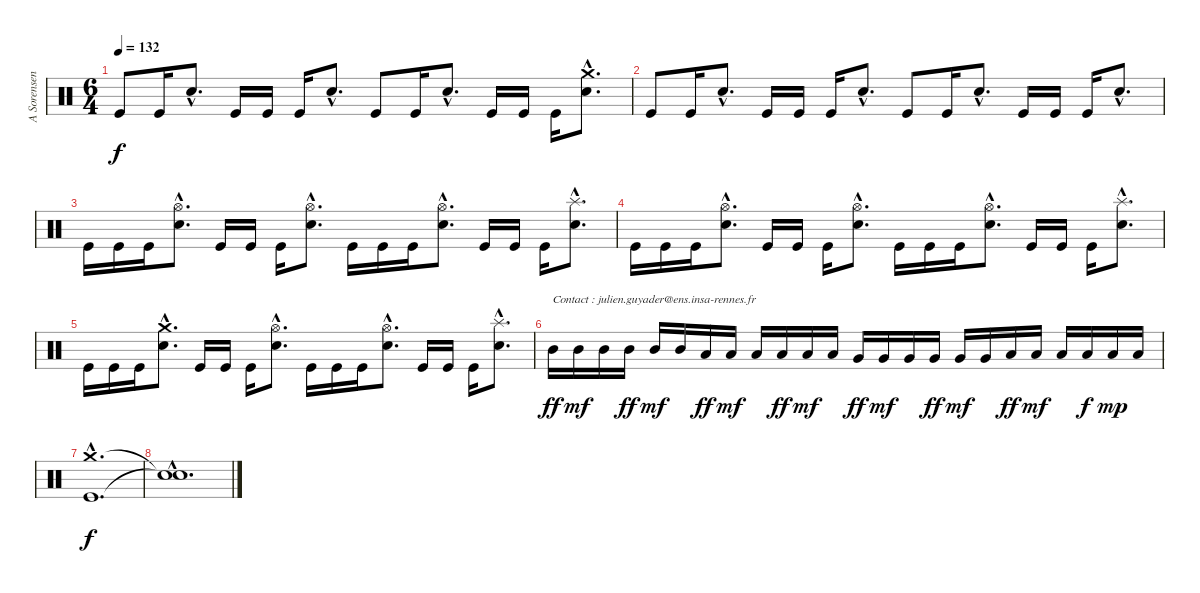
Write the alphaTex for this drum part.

\track ("A Sorensen" "A Sorensen") {instrument percussion}
\staff {score}
\articulation defaults
\ts (6 4)
\tempo 132
\clef neutral
\ks c "Kick (hit)".8{dy f} "Kick (hit)".16 "Electric Snare (hit)"{hac}.8{d} "Kick (hit)".16 "Kick (hit)".16 "Kick (hit)".16 "Electric Snare (hit)"{hac}.8{d} "Kick (hit)".8 "Kick (hit)".16 "Electric Snare (hit)"{hac}.8{d} "Kick (hit)".16 "Kick (hit)".16 "Kick (hit)".16
("Crash medium (hit)"{hac} "Electric Snare (hit)"{hac}).8{d} |
"Kick (hit)".8 "Kick (hit)".16 "Electric Snare (hit)"{hac}.8{d} "Kick (hit)".16 "Kick (hit)".16 "Kick (hit)".16 "Electric Snare (hit)"{hac}.8{d} "Kick (hit)".8 "Kick (hit)".16 "Electric Snare (hit)"{hac}.8{d} "Kick (hit)".16 "Kick (hit)".16 "Kick (hit)".16 "Electric Snare (hit)"{hac}.8{d} |
"Kick (hit)".16 "Kick (hit)".16 "Kick (hit)".16 ("Hi-Hat (open)"{hac} "Electric Snare (hit)"{hac}).8{d} "Kick (hit)".16 "Kick (hit)".16 "Kick (hit)".16 ("Hi-Hat (open)"{hac} "Electric Snare (hit)"{hac}).8{d} "Kick (hit)".16 "Kick (hit)".16 "Kick (hit)".16 ("Hi-Hat (open)"{hac} "Electric Snare (hit)"{hac}).8{d} "Kick (hit)".16 "Kick (hit)".16 "Kick (hit)".16 ("Splash (hit)"{hac} "Electric Snare (hit)"{hac}).8{d} |
"Kick (hit)".16 "Kick (hit)".16 "Kick (hit)".16 ("Hi-Hat (open)"{hac} "Electric Snare (hit)"{hac}).8{d} "Kick (hit)".16 "Kick (hit)".16 "Kick (hit)".16 ("Hi-Hat (open)"{hac} "Electric Snare (hit)"{hac}).8{d} "Kick (hit)".16 "Kick (hit)".16 "Kick (hit)".16 ("Hi-Hat (open)"{hac} "Electric Snare (hit)"{hac}).8{d} "Kick (hit)".16 "Kick (hit)".16 "Kick (hit)".16 ("Splash (hit)"{hac} "Electric Snare (hit)"{hac}).8{d} |
"Kick (hit)".16 "Kick (hit)".16 "Kick (hit)".16 ("Crash medium (hit)"{hac} "Electric Snare (hit)"{hac}).8{d} "Kick (hit)".16 "Kick (hit)".16 "Kick (hit)".16 ("Hi-Hat (open)"{hac} "Electric Snare (hit)"{hac}).8{d} "Kick (hit)".16 "Kick (hit)".16 "Kick (hit)".16 ("Hi-Hat (open)"{hac} "Electric Snare (hit)"{hac}).8{d} "Kick (hit)".16 "Kick (hit)".16 "Kick (hit)".16 ("Splash (hit)"{hac} "Electric Snare (hit)"{hac}).8{d} |
"Mid Tom (hit)".16{txt "Contact : julien.guyader@ens.insa-rennes.fr" dy ff} "Mid Tom (hit)".16{dy mf} "Mid Tom (hit)".16 "Mid Tom (hit)".16{dy ff} "Mid Tom (hit)".16{dy mf} "Mid Tom (hit)".16 "Low Tom (hit)".16{dy ff} "Low Tom (hit)".16{dy mf} "Low Tom (hit)".16 "Low Tom (hit)".16{dy ff} "Low Tom (hit)".16{dy mf} "Low Tom (hit)".16 "Very Low Tom (hit)".16{dy ff} "Very Low Tom (hit)".16{dy mf} "Very Low Tom (hit)".16 "Very Low Tom (hit)".16{dy ff} "Very Low Tom (hit)".16{dy mf} "Very Low Tom (hit)".16 "Low Floor Tom (hit)".16{dy ff} "Low Floor Tom (hit)".16{dy mf} "Low Floor Tom (hit)".16 "Low Floor Tom (hit)".16{dy f} "Low Floor Tom (hit)".16{dy mp} "Low Floor Tom (hit)".16 |
("Crash medium (hit)"{hac} "Kick (hit)"{hac}).1{d dy f} |
("Snare (hit)"{hac t} "Snare (hit)"{hac t}).1{d}
